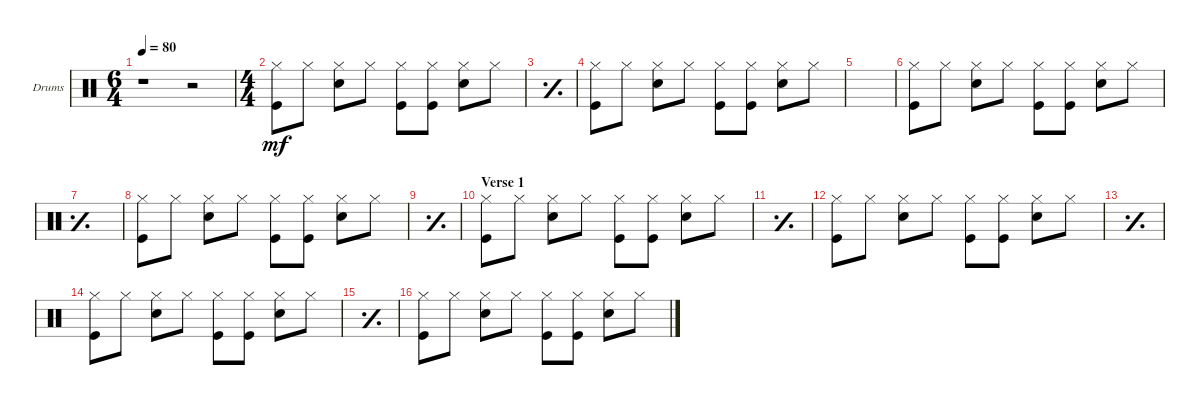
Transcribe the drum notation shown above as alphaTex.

\defaultSystemsLayout 4
\bracketExtendMode groupsimilarinstruments
\firstSystemTrackNameOrientation horizontal
\otherSystemsTrackNameOrientation horizontal
\chordDiagramsInScore
\track ("Drumkit" "Drums") {instrument percussion}
\staff {score}
\articulation defaults
\ts (6 4)
\tempo 80
\clef neutral
\ks c
r.1{dy mf} r.2 |
\ts (4 4)
("Hi-Hat (closed)" "Kick (hit)").8 "Hi-Hat (closed)".8 ("Hi-Hat (closed)" "Snare (hit) 2").8 "Hi-Hat (closed)".8 ("Hi-Hat (closed)" "Kick (hit)").8 ("Hi-Hat (closed)" "Kick (hit)").8 ("Hi-Hat (closed)" "Snare (hit) 2").8 "Hi-Hat (closed)".8 |
\simile simple
|
\simile none
("Hi-Hat (closed)" "Kick (hit)").8 "Hi-Hat (closed)".8 ("Hi-Hat (closed)" "Snare (hit) 2").8 "Hi-Hat (closed)".8 ("Hi-Hat (closed)" "Kick (hit)").8 ("Hi-Hat (closed)" "Kick (hit)").8 ("Hi-Hat (closed)" "Snare (hit) 2").8 "Hi-Hat (closed)".8 |
|
("Hi-Hat (closed)" "Kick (hit)").8 "Hi-Hat (closed)".8 ("Hi-Hat (closed)" "Snare (hit) 2").8 "Hi-Hat (closed)".8 ("Hi-Hat (closed)" "Kick (hit)").8 ("Hi-Hat (closed)" "Kick (hit)").8 ("Hi-Hat (closed)" "Snare (hit) 2").8 "Hi-Hat (closed)".8 |
\simile simple
|
\simile none
("Hi-Hat (closed)" "Kick (hit)").8 "Hi-Hat (closed)".8 ("Hi-Hat (closed)" "Snare (hit) 2").8 "Hi-Hat (closed)".8 ("Hi-Hat (closed)" "Kick (hit)").8 ("Hi-Hat (closed)" "Kick (hit)").8 ("Hi-Hat (closed)" "Snare (hit) 2").8 "Hi-Hat (closed)".8 |
\simile simple
|
\section ("" "Verse 1")
\simile none
("Hi-Hat (closed)" "Kick (hit)").8 "Hi-Hat (closed)".8 ("Hi-Hat (closed)" "Snare (hit) 2").8 "Hi-Hat (closed)".8 ("Hi-Hat (closed)" "Kick (hit)").8 ("Hi-Hat (closed)" "Kick (hit)").8 ("Hi-Hat (closed)" "Snare (hit) 2").8 "Hi-Hat (closed)".8 |
\simile simple
|
\simile none
("Hi-Hat (closed)" "Kick (hit)").8 "Hi-Hat (closed)".8 ("Hi-Hat (closed)" "Snare (hit) 2").8 "Hi-Hat (closed)".8 ("Hi-Hat (closed)" "Kick (hit)").8 ("Hi-Hat (closed)" "Kick (hit)").8 ("Hi-Hat (closed)" "Snare (hit) 2").8 "Hi-Hat (closed)".8 |
\simile simple
|
\simile none
("Hi-Hat (closed)" "Kick (hit)").8 "Hi-Hat (closed)".8 ("Hi-Hat (closed)" "Snare (hit) 2").8 "Hi-Hat (closed)".8 ("Hi-Hat (closed)" "Kick (hit)").8 ("Hi-Hat (closed)" "Kick (hit)").8 ("Hi-Hat (closed)" "Snare (hit) 2").8 "Hi-Hat (closed)".8 |
\simile simple
|
\simile none
("Hi-Hat (closed)" "Kick (hit)").8 "Hi-Hat (closed)".8 ("Hi-Hat (closed)" "Snare (hit) 2").8 "Hi-Hat (closed)".8 ("Hi-Hat (closed)" "Kick (hit)").8 ("Hi-Hat (closed)" "Kick (hit)").8 ("Hi-Hat (closed)" "Snare (hit) 2").8 "Hi-Hat (closed)".8
